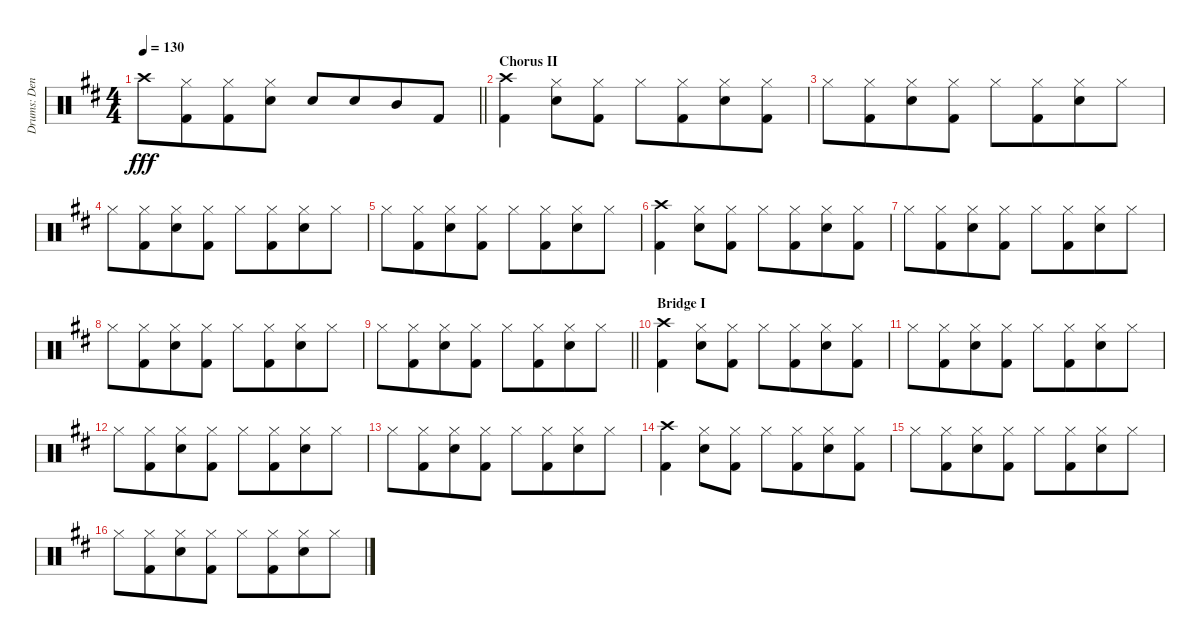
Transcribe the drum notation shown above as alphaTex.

\track ("Drums: Denny" "Drums: Den") {instrument percussion}
\staff {score}
\articulation defaults
\ts (4 4)
\tempo 130
\clef neutral
\barLineRight lightlight
\ks d "Crash high (hit)".8{dy fff}
("Hi-Hat (closed)" "Kick (hit) 2").8{beam merge} ("Hi-Hat (closed)" "Kick (hit) 2").8{beam merge} ("Hi-Hat (closed)" "Electric Snare (hit)").8{beam split} "Electric Snare (hit)".8{beam merge} "Electric Snare (hit)".8{beam merge} "Mid Tom (hit)".8 "Kick (hit) 2".8 |
\section ("" "Chorus II")
("Crash high (hit)" "Kick (hit) 2").4 ("Hi-Hat (closed)" "Electric Snare (hit)").8 ("Hi-Hat (closed)" "Kick (hit) 2").8 "Hi-Hat (closed)".8 ("Hi-Hat (closed)" "Kick (hit) 2").8{beam merge} ("Hi-Hat (closed)" "Electric Snare (hit)").8 ("Hi-Hat (closed)" "Kick (hit) 2").8 |
"Hi-Hat (closed)".8 ("Hi-Hat (closed)" "Kick (hit) 2").8{beam merge} ("Hi-Hat (closed)" "Electric Snare (hit)").8 ("Hi-Hat (closed)" "Kick (hit) 2").8 "Hi-Hat (closed)".8 ("Hi-Hat (closed)" "Kick (hit) 2").8{beam merge} ("Hi-Hat (closed)" "Electric Snare (hit)").8 "Hi-Hat (closed)".8 |
"Hi-Hat (closed)".8 ("Hi-Hat (closed)" "Kick (hit) 2").8{beam merge} ("Hi-Hat (closed)" "Electric Snare (hit)").8 ("Hi-Hat (closed)" "Kick (hit) 2").8 "Hi-Hat (closed)".8 ("Hi-Hat (closed)" "Kick (hit) 2").8{beam merge} ("Hi-Hat (closed)" "Electric Snare (hit)").8 "Hi-Hat (closed)".8 |
"Hi-Hat (closed)".8 ("Hi-Hat (closed)" "Kick (hit) 2").8{beam merge} ("Hi-Hat (closed)" "Electric Snare (hit)").8 ("Hi-Hat (closed)" "Kick (hit) 2").8 "Hi-Hat (closed)".8 ("Hi-Hat (closed)" "Kick (hit) 2").8{beam merge} ("Hi-Hat (closed)" "Electric Snare (hit)").8 "Hi-Hat (closed)".8 |
("Crash high (hit)" "Kick (hit) 2").4 ("Hi-Hat (closed)" "Electric Snare (hit)").8 ("Hi-Hat (closed)" "Kick (hit) 2").8 "Hi-Hat (closed)".8 ("Hi-Hat (closed)" "Kick (hit) 2").8{beam merge} ("Hi-Hat (closed)" "Electric Snare (hit)").8 ("Hi-Hat (closed)" "Kick (hit) 2").8 |
"Hi-Hat (closed)".8 ("Hi-Hat (closed)" "Kick (hit) 2").8{beam merge} ("Hi-Hat (closed)" "Electric Snare (hit)").8 ("Hi-Hat (closed)" "Kick (hit) 2").8 "Hi-Hat (closed)".8 ("Hi-Hat (closed)" "Kick (hit) 2").8{beam merge} ("Hi-Hat (closed)" "Electric Snare (hit)").8 "Hi-Hat (closed)".8 |
"Hi-Hat (closed)".8 ("Hi-Hat (closed)" "Kick (hit) 2").8{beam merge} ("Hi-Hat (closed)" "Electric Snare (hit)").8 ("Hi-Hat (closed)" "Kick (hit) 2").8 "Hi-Hat (closed)".8 ("Hi-Hat (closed)" "Kick (hit) 2").8{beam merge} ("Hi-Hat (closed)" "Electric Snare (hit)").8 "Hi-Hat (closed)".8 |
\barLineRight lightlight "Hi-Hat (closed)".8
("Hi-Hat (closed)" "Kick (hit) 2").8{beam merge} ("Hi-Hat (closed)" "Electric Snare (hit)").8 ("Hi-Hat (closed)" "Kick (hit) 2").8 "Hi-Hat (closed)".8 ("Hi-Hat (closed)" "Kick (hit) 2").8{beam merge} ("Hi-Hat (closed)" "Electric Snare (hit)").8 "Hi-Hat (closed)".8 |
\section ("" "Bridge I")
("Crash high (hit)" "Kick (hit) 2").4 ("Hi-Hat (closed)" "Electric Snare (hit)").8 ("Hi-Hat (closed)" "Kick (hit) 2").8 "Hi-Hat (closed)".8 ("Hi-Hat (closed)" "Kick (hit) 2").8{beam merge} ("Hi-Hat (closed)" "Electric Snare (hit)").8 ("Hi-Hat (closed)" "Kick (hit) 2").8 |
"Hi-Hat (closed)".8 ("Hi-Hat (closed)" "Kick (hit) 2").8{beam merge} ("Hi-Hat (closed)" "Electric Snare (hit)").8 ("Hi-Hat (closed)" "Kick (hit) 2").8 "Hi-Hat (closed)".8 ("Hi-Hat (closed)" "Kick (hit) 2").8{beam merge} ("Hi-Hat (closed)" "Electric Snare (hit)").8 "Hi-Hat (closed)".8 |
"Hi-Hat (closed)".8 ("Hi-Hat (closed)" "Kick (hit) 2").8{beam merge} ("Hi-Hat (closed)" "Electric Snare (hit)").8 ("Hi-Hat (closed)" "Kick (hit) 2").8 "Hi-Hat (closed)".8 ("Hi-Hat (closed)" "Kick (hit) 2").8{beam merge} ("Hi-Hat (closed)" "Electric Snare (hit)").8 "Hi-Hat (closed)".8 |
"Hi-Hat (closed)".8 ("Hi-Hat (closed)" "Kick (hit) 2").8{beam merge} ("Hi-Hat (closed)" "Electric Snare (hit)").8 ("Hi-Hat (closed)" "Kick (hit) 2").8 "Hi-Hat (closed)".8 ("Hi-Hat (closed)" "Kick (hit) 2").8{beam merge} ("Hi-Hat (closed)" "Electric Snare (hit)").8 "Hi-Hat (closed)".8 |
("Crash high (hit)" "Kick (hit) 2").4 ("Hi-Hat (closed)" "Electric Snare (hit)").8 ("Hi-Hat (closed)" "Kick (hit) 2").8 "Hi-Hat (closed)".8 ("Hi-Hat (closed)" "Kick (hit) 2").8{beam merge} ("Hi-Hat (closed)" "Electric Snare (hit)").8 ("Hi-Hat (closed)" "Kick (hit) 2").8 |
"Hi-Hat (closed)".8 ("Hi-Hat (closed)" "Kick (hit) 2").8{beam merge} ("Hi-Hat (closed)" "Electric Snare (hit)").8 ("Hi-Hat (closed)" "Kick (hit) 2").8 "Hi-Hat (closed)".8 ("Hi-Hat (closed)" "Kick (hit) 2").8{beam merge} ("Hi-Hat (closed)" "Electric Snare (hit)").8 "Hi-Hat (closed)".8 |
"Hi-Hat (closed)".8 ("Hi-Hat (closed)" "Kick (hit) 2").8{beam merge} ("Hi-Hat (closed)" "Electric Snare (hit)").8 ("Hi-Hat (closed)" "Kick (hit) 2").8 "Hi-Hat (closed)".8 ("Hi-Hat (closed)" "Kick (hit) 2").8{beam merge} ("Hi-Hat (closed)" "Electric Snare (hit)").8 "Hi-Hat (closed)".8
